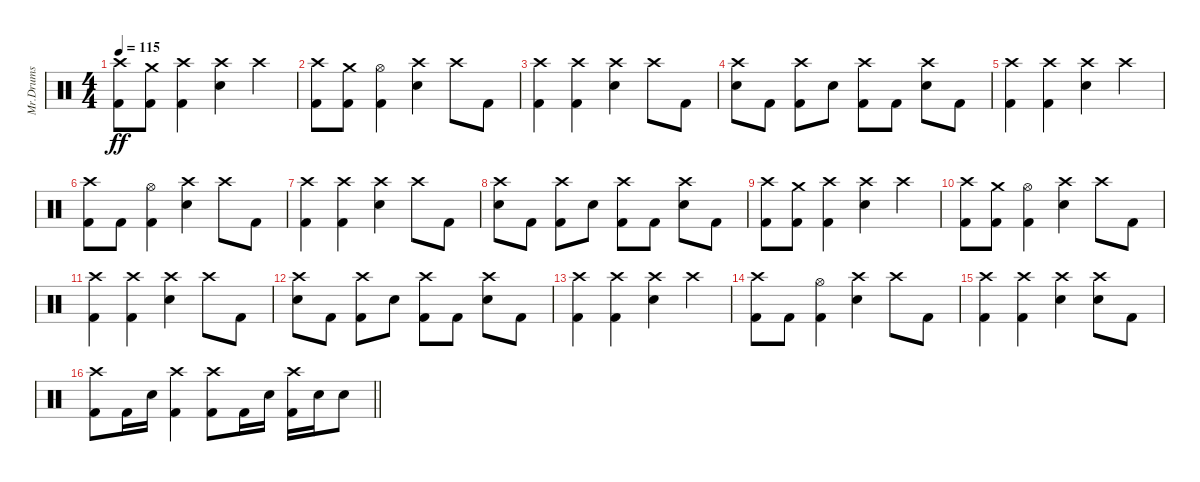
\track ("Mr.Drums" "Mr.Drums") {instrument percussion}
\staff {score}
\articulation defaults
\ts (4 4)
\tempo 115
\clef neutral
\ks c
("Crash high (hit)" "Kick (hit) 2").8{dy ff} ("Crash medium (hit)" "Kick (hit) 2").8 ("Crash high (hit)" "Kick (hit) 2").4 ("Crash high (hit)" "Electric Snare (hit)").4 "Crash high (hit)".4 |
("Crash high (hit)" "Kick (hit) 2").8 ("Crash medium (hit)" "Kick (hit) 2").8 ("Hi-Hat (open)" "Kick (hit) 2").4 ("Crash high (hit)" "Electric Snare (hit)").4 "Crash high (hit)".8 "Kick (hit) 2".8 |
("Crash high (hit)" "Kick (hit) 2").4 ("Crash high (hit)" "Kick (hit) 2").4 ("Crash high (hit)" "Electric Snare (hit)").4 "Crash high (hit)".8 "Kick (hit) 2".8 |
("Crash high (hit)" "Electric Snare (hit)").8 "Kick (hit) 2".8 ("Crash high (hit)" "Kick (hit) 2").8 "Electric Snare (hit)".8 ("Crash high (hit)" "Kick (hit) 2").8 "Kick (hit) 2".8 ("Crash high (hit)" "Electric Snare (hit)").8 "Kick (hit) 2".8 |
("Crash high (hit)" "Kick (hit) 2").4 ("Crash high (hit)" "Kick (hit) 2").4 ("Crash high (hit)" "Electric Snare (hit)").4 "Crash high (hit)".4 |
("Crash high (hit)" "Kick (hit) 2").8 "Kick (hit) 2".8 ("Hi-Hat (open)" "Kick (hit) 2").4 ("Crash high (hit)" "Electric Snare (hit)").4 "Crash high (hit)".8 "Kick (hit) 2".8 |
("Crash high (hit)" "Kick (hit) 2").4 ("Crash high (hit)" "Kick (hit) 2").4 ("Crash high (hit)" "Electric Snare (hit)").4 "Crash high (hit)".8 "Kick (hit) 2".8 |
("Crash high (hit)" "Electric Snare (hit)").8 "Kick (hit) 2".8 ("Crash high (hit)" "Kick (hit) 2").8 "Electric Snare (hit)".8 ("Crash high (hit)" "Kick (hit) 2").8 "Kick (hit) 2".8 ("Crash high (hit)" "Electric Snare (hit)").8 "Kick (hit) 2".8 |
("Crash high (hit)" "Kick (hit) 2").8 ("Crash medium (hit)" "Kick (hit) 2").8 ("Crash high (hit)" "Kick (hit) 2").4 ("Crash high (hit)" "Electric Snare (hit)").4 "Crash high (hit)".4 |
("Crash high (hit)" "Kick (hit) 2").8 ("Crash medium (hit)" "Kick (hit) 2").8 ("Hi-Hat (open)" "Kick (hit) 2").4 ("Crash high (hit)" "Electric Snare (hit)").4 "Crash high (hit)".8 "Kick (hit) 2".8 |
("Crash high (hit)" "Kick (hit) 2").4 ("Crash high (hit)" "Kick (hit) 2").4 ("Crash high (hit)" "Electric Snare (hit)").4 "Crash high (hit)".8 "Kick (hit) 2".8 |
("Crash high (hit)" "Electric Snare (hit)").8 "Kick (hit) 2".8 ("Crash high (hit)" "Kick (hit) 2").8 "Electric Snare (hit)".8 ("Crash high (hit)" "Kick (hit) 2").8 "Kick (hit) 2".8 ("Crash high (hit)" "Electric Snare (hit)").8 "Kick (hit) 2".8 |
("Crash high (hit)" "Kick (hit) 2").4 ("Crash high (hit)" "Kick (hit) 2").4 ("Crash high (hit)" "Electric Snare (hit)").4 "Crash high (hit)".4 |
("Crash high (hit)" "Kick (hit) 2").8 "Kick (hit) 2".8 ("Hi-Hat (open)" "Kick (hit) 2").4 ("Crash high (hit)" "Electric Snare (hit)").4 "Crash high (hit)".8 "Kick (hit) 2".8 |
("Crash high (hit)" "Kick (hit) 2").4 ("Crash high (hit)" "Kick (hit) 2").4 ("Crash high (hit)" "Electric Snare (hit)").4 ("Crash high (hit)" "Electric Snare (hit)").8 "Kick (hit) 2".8 |
\barLineRight lightlight
("Crash high (hit)" "Kick (hit) 2").8 "Kick (hit) 2".16 "Electric Snare (hit)".16 ("Crash high (hit)" "Kick (hit) 2").4 ("Crash high (hit)" "Kick (hit) 2").8 "Kick (hit) 2".16 "Electric Snare (hit)".16 ("Crash high (hit)" "Kick (hit) 2").16 "Electric Snare (hit)".16 "Electric Snare (hit)".8
